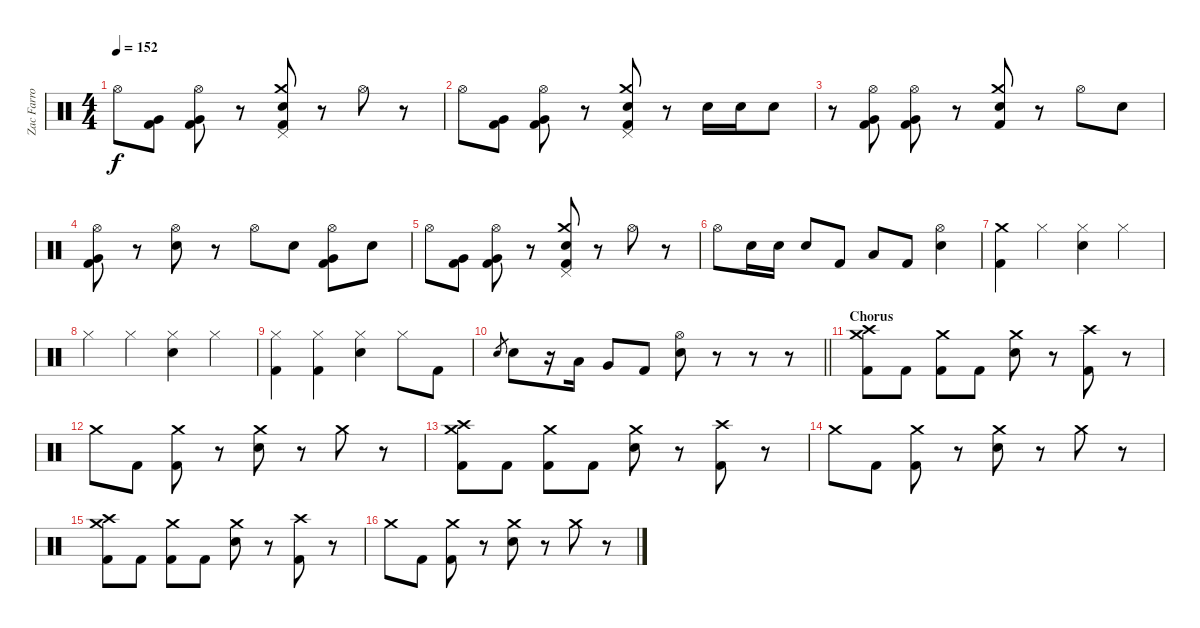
\track ("Zac Farro - Drums" "Zac Farro ") {instrument percussion}
\staff {score}
\articulation defaults
\ts (4 4)
\tempo 152
\clef neutral
\ks c "Hi-Hat (open)".8{dy f}
("Very Low Tom (hit)" "Kick (hit) 2").8 ("Hi-Hat (open)" "Very Low Tom (hit)" "Kick (hit) 2").8 r.8 ("Crash medium (hit)" "Pedal Hi-Hat (hit)" "Electric Snare (hit)" "Kick (hit) 2").8 r.8 "Hi-Hat (open)".8 r.8 |
"Hi-Hat (open)".8 ("Very Low Tom (hit)" "Kick (hit) 2").8 ("Hi-Hat (open)" "Very Low Tom (hit)" "Kick (hit) 2").8 r.8 ("Crash medium (hit)" "Pedal Hi-Hat (hit)" "Electric Snare (hit)" "Kick (hit) 2").8 r.8 "Electric Snare (hit)".16 "Electric Snare (hit)".16 "Electric Snare (hit)".8 |
r.8 ("Hi-Hat (open)" "Very Low Tom (hit)" "Kick (hit) 2").8 ("Hi-Hat (open)" "Very Low Tom (hit)" "Kick (hit) 2").8 r.8 ("Crash medium (hit)" "Electric Snare (hit)" "Kick (hit) 2").8 r.8 "Hi-Hat (open)".8 "Electric Snare (hit)".8 |
("Hi-Hat (open)" "Very Low Tom (hit)" "Kick (hit) 2").8 r.8 ("Hi-Hat (open)" "Electric Snare (hit)").8 r.8 "Hi-Hat (open)".8 "Electric Snare (hit)".8 ("Hi-Hat (open)" "Very Low Tom (hit)" "Kick (hit) 2").8 "Electric Snare (hit)".8 |
"Hi-Hat (open)".8 ("Very Low Tom (hit)" "Kick (hit) 2").8 ("Hi-Hat (open)" "Very Low Tom (hit)" "Kick (hit) 2").8 r.8 ("Crash medium (hit)" "Pedal Hi-Hat (hit)" "Electric Snare (hit)" "Kick (hit) 2").8 r.8 "Hi-Hat (open)".8 r.8 |
"Hi-Hat (open)".8 "Electric Snare (hit)".16 "Electric Snare (hit)".16 "Electric Snare (hit)".8 "Kick (hit) 2".8 "Low Tom (hit)".8 "Kick (hit) 2".8 ("Hi-Hat (open)" "Electric Snare (hit)").4 |
("Crash medium (hit)" "Kick (hit) 2").4 "Hi-Hat (closed)".4 ("Hi-Hat (closed)" "Electric Snare (hit)").4 "Hi-Hat (closed)".4 |
"Hi-Hat (closed)".4 "Hi-Hat (closed)".4 ("Hi-Hat (closed)" "Electric Snare (hit)").4 "Hi-Hat (closed)".4 |
("Hi-Hat (closed)" "Kick (hit) 2").4 ("Hi-Hat (closed)" "Kick (hit) 2").4 ("Hi-Hat (closed)" "Electric Snare (hit)").4 "Hi-Hat (closed)".8 "Kick (hit) 2".8 |
\barLineRight lightlight "Electric Snare (hit)".8{gr} "Electric Snare (hit)".8
r.16 "Low Tom (hit)".16 "Very Low Tom (hit)".8 "Kick (hit) 2".8 ("Hi-Hat (open)" "Electric Snare (hit)").8 r.8 r.8 r.8 |
\section ("" "Chorus")
("Crash high (hit)" "Crash medium (hit)" "Kick (hit) 2").8 "Kick (hit) 2".8 ("Crash medium (hit)" "Kick (hit) 2").8 "Kick (hit) 2".8 ("Crash medium (hit)" "Electric Snare (hit)").8 r.8 ("Crash high (hit)" "Kick (hit) 2").8 r.8 |
"Crash medium (hit)".8 "Kick (hit) 2".8 ("Crash medium (hit)" "Kick (hit) 2").8 r.8 ("Crash medium (hit)" "Electric Snare (hit)").8 r.8 "Crash medium (hit)".8 r.8 |
("Crash high (hit)" "Crash medium (hit)" "Kick (hit) 2").8 "Kick (hit) 2".8 ("Crash medium (hit)" "Kick (hit) 2").8 "Kick (hit) 2".8 ("Crash medium (hit)" "Electric Snare (hit)").8 r.8 ("Crash high (hit)" "Kick (hit) 2").8 r.8 |
"Crash medium (hit)".8 "Kick (hit) 2".8 ("Crash medium (hit)" "Kick (hit) 2").8 r.8 ("Crash medium (hit)" "Electric Snare (hit)").8 r.8 "Crash medium (hit)".8 r.8 |
("Crash high (hit)" "Crash medium (hit)" "Kick (hit) 2").8 "Kick (hit) 2".8 ("Crash medium (hit)" "Kick (hit) 2").8 "Kick (hit) 2".8 ("Crash medium (hit)" "Electric Snare (hit)").8 r.8 ("Crash high (hit)" "Kick (hit) 2").8 r.8 |
"Crash medium (hit)".8 "Kick (hit) 2".8 ("Crash medium (hit)" "Kick (hit) 2").8 r.8 ("Crash medium (hit)" "Electric Snare (hit)").8 r.8 "Crash medium (hit)".8 r.8
